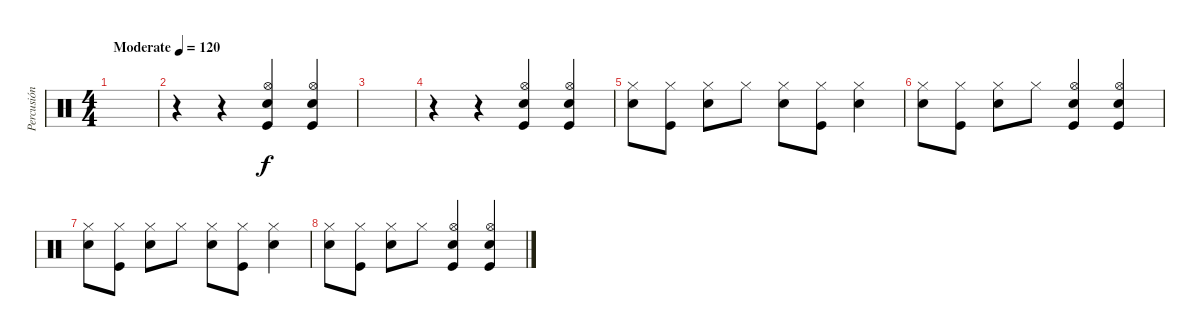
\track ("Percusión" "Percusión") {instrument percussion}
\staff {score}
\articulation defaults
\ts (4 4)
\tempo (120 "Moderate")
\clef neutral
\ks c
|
r.4 r.4 ("Kick (hit)" "Hi-Hat (open)" "Snare (hit) 2").4 ("Kick (hit)" "Hi-Hat (open)" "Snare (hit) 2").4 |
|
r.4 r.4 ("Kick (hit)" "Hi-Hat (open)" "Snare (hit) 2").4 ("Kick (hit)" "Hi-Hat (open)" "Snare (hit) 2").4 |
("Snare (hit) 2" "Hi-Hat (closed)").8 ("Hi-Hat (closed)" "Kick (hit)").8 ("Snare (hit) 2" "Hi-Hat (closed)").8 "Hi-Hat (closed)".8 ("Snare (hit) 2" "Hi-Hat (closed)").8 ("Hi-Hat (closed)" "Kick (hit)").8 ("Snare (hit) 2" "Hi-Hat (closed)").4 |
("Snare (hit) 2" "Hi-Hat (closed)").8 ("Hi-Hat (closed)" "Kick (hit)").8 ("Snare (hit) 2" "Hi-Hat (closed)").8 "Hi-Hat (closed)".8 ("Kick (hit)" "Hi-Hat (open)" "Snare (hit) 2").4 ("Kick (hit)" "Hi-Hat (open)" "Snare (hit) 2").4 |
("Snare (hit) 2" "Hi-Hat (closed)").8 ("Hi-Hat (closed)" "Kick (hit)").8 ("Snare (hit) 2" "Hi-Hat (closed)").8 "Hi-Hat (closed)".8 ("Snare (hit) 2" "Hi-Hat (closed)").8 ("Hi-Hat (closed)" "Kick (hit)").8 ("Snare (hit) 2" "Hi-Hat (closed)").4 |
("Snare (hit) 2" "Hi-Hat (closed)").8 ("Hi-Hat (closed)" "Kick (hit)").8 ("Snare (hit) 2" "Hi-Hat (closed)").8 "Hi-Hat (closed)".8 ("Kick (hit)" "Hi-Hat (open)" "Snare (hit) 2").4 ("Kick (hit)" "Hi-Hat (open)" "Snare (hit) 2").4
